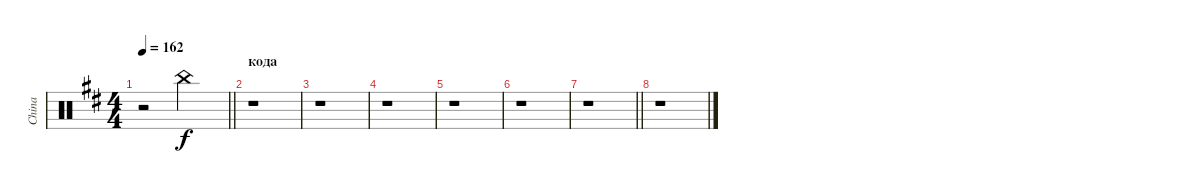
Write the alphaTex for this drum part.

\track ("China" "China") {instrument percussion}
\staff {score}
\articulation defaults
\ts (4 4)
\tempo 162
\clef neutral
\barLineRight lightlight
\ks bminor
r.2{dy f} "China (hit)".2 |
\section ("" "кода")
r.1 |
r.1 |
r.1 |
r.1 |
r.1 |
\barLineRight lightlight
r.1 |
r.1
